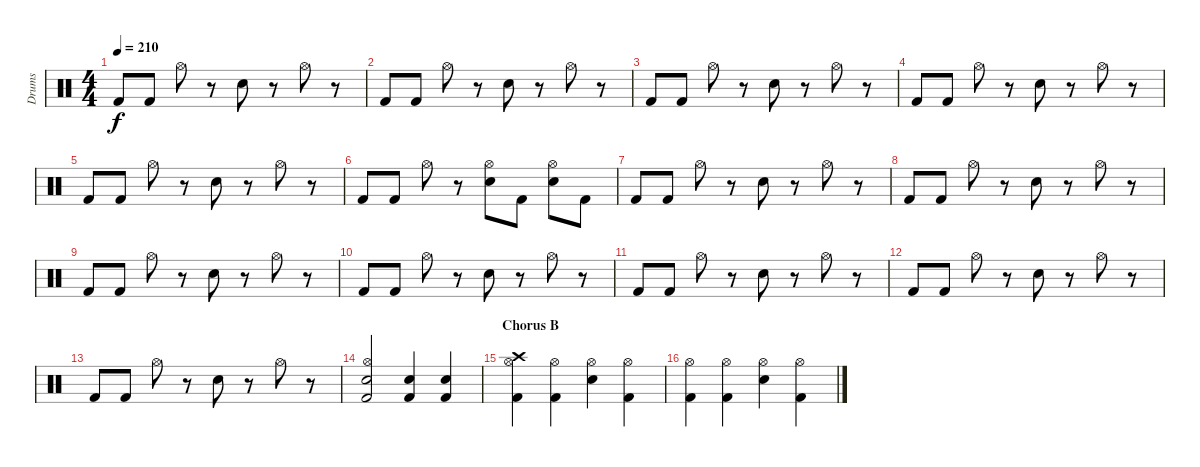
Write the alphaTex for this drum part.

\track ("Drums" "Drums") {instrument percussion}
\staff {score}
\articulation defaults
\ts (4 4)
\tempo 210
\clef neutral
\ks c "Kick (hit) 2".8{dy f} "Kick (hit) 2".8 "Hi-Hat (open)".8
r.8 "Electric Snare (hit)".8 r.8 "Hi-Hat (open)".8 r.8 |
"Kick (hit) 2".8 "Kick (hit) 2".8 "Hi-Hat (open)".8 r.8 "Electric Snare (hit)".8 r.8 "Hi-Hat (open)".8 r.8 |
"Kick (hit) 2".8 "Kick (hit) 2".8 "Hi-Hat (open)".8 r.8 "Electric Snare (hit)".8 r.8 "Hi-Hat (open)".8 r.8 |
"Kick (hit) 2".8 "Kick (hit) 2".8 "Hi-Hat (open)".8 r.8 "Electric Snare (hit)".8 r.8 "Hi-Hat (open)".8 r.8 |
"Kick (hit) 2".8 "Kick (hit) 2".8 "Hi-Hat (open)".8 r.8 "Electric Snare (hit)".8 r.8 "Hi-Hat (open)".8 r.8 |
"Kick (hit) 2".8 "Kick (hit) 2".8 "Hi-Hat (open)".8 r.8 ("Hi-Hat (open)" "Electric Snare (hit)").8 "Kick (hit) 2".8 ("Hi-Hat (open)" "Electric Snare (hit)").8 "Kick (hit) 2".8 |
"Kick (hit) 2".8 "Kick (hit) 2".8 "Hi-Hat (open)".8 r.8 "Electric Snare (hit)".8 r.8 "Hi-Hat (open)".8 r.8 |
"Kick (hit) 2".8 "Kick (hit) 2".8 "Hi-Hat (open)".8 r.8 "Electric Snare (hit)".8 r.8 "Hi-Hat (open)".8 r.8 |
"Kick (hit) 2".8 "Kick (hit) 2".8 "Hi-Hat (open)".8 r.8 "Electric Snare (hit)".8 r.8 "Hi-Hat (open)".8 r.8 |
"Kick (hit) 2".8 "Kick (hit) 2".8 "Hi-Hat (open)".8 r.8 "Electric Snare (hit)".8 r.8 "Hi-Hat (open)".8 r.8 |
"Kick (hit) 2".8 "Kick (hit) 2".8 "Hi-Hat (open)".8 r.8 "Electric Snare (hit)".8 r.8 "Hi-Hat (open)".8 r.8 |
"Kick (hit) 2".8 "Kick (hit) 2".8 "Hi-Hat (open)".8 r.8 "Electric Snare (hit)".8 r.8 "Hi-Hat (open)".8 r.8 |
"Kick (hit) 2".8 "Kick (hit) 2".8 "Hi-Hat (open)".8 r.8 "Electric Snare (hit)".8 r.8 "Hi-Hat (open)".8 r.8 |
("Hi-Hat (open)" "Electric Snare (hit)" "Kick (hit) 2").2 ("Snare (hit) 2" "Kick (hit) 2").4 ("Snare (hit) 2" "Kick (hit) 2").4 |
\section ("" "Chorus B")
("Crash high (hit)" "Hi-Hat (open)" "Kick (hit) 2").4 ("Hi-Hat (open)" "Kick (hit) 2").4 ("Hi-Hat (open)" "Electric Snare (hit)").4 ("Hi-Hat (open)" "Kick (hit) 2").4 |
("Hi-Hat (open)" "Kick (hit) 2").4 ("Hi-Hat (open)" "Kick (hit) 2").4 ("Hi-Hat (open)" "Electric Snare (hit)").4 ("Hi-Hat (open)" "Kick (hit) 2").4
